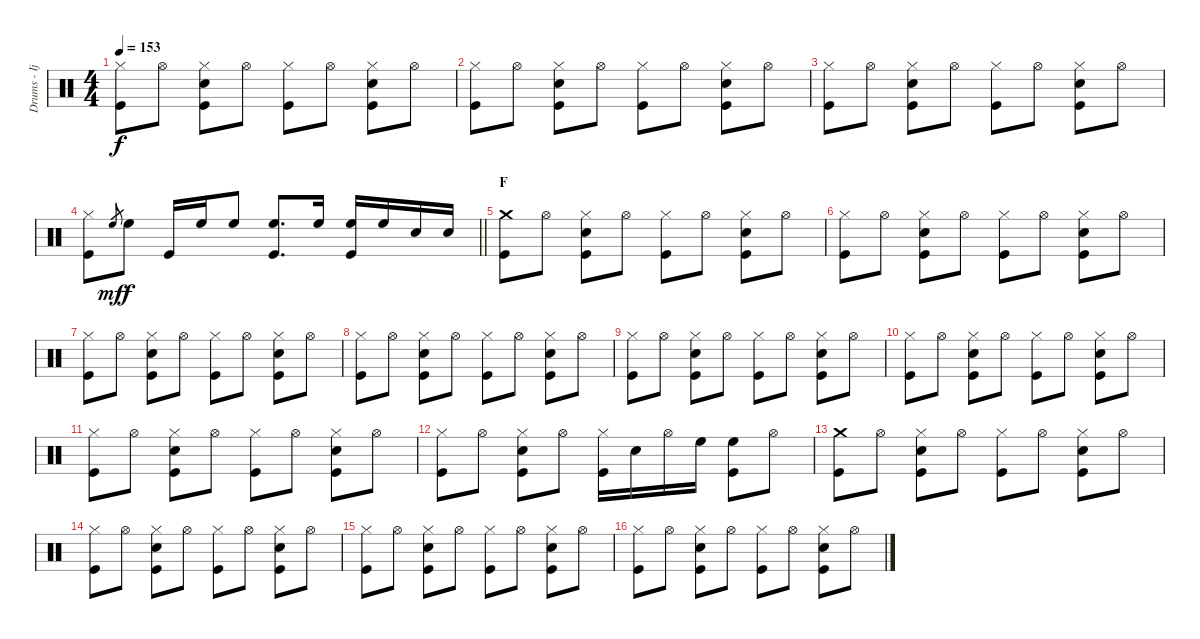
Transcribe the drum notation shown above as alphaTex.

\track ("Drums - Ijichi" "Drums - Ij") {instrument percussion}
\staff {score}
\articulation defaults
\ts (4 4)
\tempo 153
\clef neutral
\ks c
("Hi-Hat (closed)" "Kick (hit)").8{dy f} "Hi-Hat (open)".8 ("Hi-Hat (closed)" "Electric Snare (hit)" "Kick (hit)").8 "Hi-Hat (open)".8 ("Hi-Hat (closed)" "Kick (hit)").8 "Hi-Hat (open)".8 ("Hi-Hat (closed)" "Electric Snare (hit)" "Kick (hit)").8 "Hi-Hat (open)".8 |
("Hi-Hat (closed)" "Kick (hit)").8 "Hi-Hat (open)".8 ("Hi-Hat (closed)" "Electric Snare (hit)" "Kick (hit)").8 "Hi-Hat (open)".8 ("Hi-Hat (closed)" "Kick (hit)").8 "Hi-Hat (open)".8 ("Hi-Hat (closed)" "Electric Snare (hit)" "Kick (hit)").8 "Hi-Hat (open)".8 |
("Hi-Hat (closed)" "Kick (hit)").8 "Hi-Hat (open)".8 ("Hi-Hat (closed)" "Electric Snare (hit)" "Kick (hit)").8 "Hi-Hat (open)".8 ("Hi-Hat (closed)" "Kick (hit)").8 "Hi-Hat (open)".8 ("Hi-Hat (closed)" "Electric Snare (hit)" "Kick (hit)").8 "Hi-Hat (open)".8 |
\barLineRight lightlight
("Hi-Hat (closed)" "Kick (hit)").8 "High Floor Tom (hit)".8{gr dy mf} "High Floor Tom (hit)".8{dy f} "Kick (hit)".16 "High Floor Tom (hit)".16 "High Floor Tom (hit)".8 ("High Floor Tom (hit)" "Kick (hit)").8{d} "High Floor Tom (hit)".16 ("High Floor Tom (hit)" "Kick (hit)").16 "High Floor Tom (hit)".16 "Electric Snare (hit)".16 "Electric Snare (hit)".16 |
\section ("" "F")
("Crash medium (hit)" "Kick (hit)").8 "Hi-Hat (open)".8 ("Hi-Hat (closed)" "Electric Snare (hit)" "Kick (hit)").8 "Hi-Hat (open)".8 ("Hi-Hat (closed)" "Kick (hit)").8 "Hi-Hat (open)".8 ("Hi-Hat (closed)" "Electric Snare (hit)" "Kick (hit)").8 "Hi-Hat (open)".8 |
("Hi-Hat (closed)" "Kick (hit)").8 "Hi-Hat (open)".8 ("Hi-Hat (closed)" "Electric Snare (hit)" "Kick (hit)").8 "Hi-Hat (open)".8 ("Hi-Hat (closed)" "Kick (hit)").8 "Hi-Hat (open)".8 ("Hi-Hat (closed)" "Electric Snare (hit)" "Kick (hit)").8 "Hi-Hat (open)".8 |
("Hi-Hat (closed)" "Kick (hit)").8 "Hi-Hat (open)".8 ("Hi-Hat (closed)" "Electric Snare (hit)" "Kick (hit)").8 "Hi-Hat (open)".8 ("Hi-Hat (closed)" "Kick (hit)").8 "Hi-Hat (open)".8 ("Hi-Hat (closed)" "Electric Snare (hit)" "Kick (hit)").8 "Hi-Hat (open)".8 |
("Hi-Hat (closed)" "Kick (hit)").8 "Hi-Hat (open)".8 ("Hi-Hat (closed)" "Electric Snare (hit)" "Kick (hit)").8 "Hi-Hat (open)".8 ("Hi-Hat (closed)" "Kick (hit)").8 "Hi-Hat (open)".8 ("Hi-Hat (closed)" "Electric Snare (hit)" "Kick (hit)").8 "Hi-Hat (open)".8 |
("Hi-Hat (closed)" "Kick (hit)").8 "Hi-Hat (open)".8 ("Hi-Hat (closed)" "Electric Snare (hit)" "Kick (hit)").8 "Hi-Hat (open)".8 ("Hi-Hat (closed)" "Kick (hit)").8 "Hi-Hat (open)".8 ("Hi-Hat (closed)" "Electric Snare (hit)" "Kick (hit)").8 "Hi-Hat (open)".8 |
("Hi-Hat (closed)" "Kick (hit)").8 "Hi-Hat (open)".8 ("Hi-Hat (closed)" "Electric Snare (hit)" "Kick (hit)").8 "Hi-Hat (open)".8 ("Hi-Hat (closed)" "Kick (hit)").8 "Hi-Hat (open)".8 ("Hi-Hat (closed)" "Electric Snare (hit)" "Kick (hit)").8 "Hi-Hat (open)".8 |
("Hi-Hat (closed)" "Kick (hit)").8 "Hi-Hat (open)".8 ("Hi-Hat (closed)" "Electric Snare (hit)" "Kick (hit)").8 "Hi-Hat (open)".8 ("Hi-Hat (closed)" "Kick (hit)").8 "Hi-Hat (open)".8 ("Hi-Hat (closed)" "Electric Snare (hit)" "Kick (hit)").8 "Hi-Hat (open)".8 |
("Hi-Hat (closed)" "Kick (hit)").8 "Hi-Hat (open)".8 ("Hi-Hat (closed)" "Electric Snare (hit)" "Kick (hit)").8 "Hi-Hat (open)".8 ("Hi-Hat (closed)" "Kick (hit)").16 "Electric Snare (hit)".16 "Hi-Hat (open)".16 "High Floor Tom (hit)".16 ("High Floor Tom (hit)" "Kick (hit)").8 "Hi-Hat (open)".8 |
("Crash medium (hit)" "Kick (hit)").8 "Hi-Hat (open)".8 ("Hi-Hat (closed)" "Electric Snare (hit)" "Kick (hit)").8 "Hi-Hat (open)".8 ("Hi-Hat (closed)" "Kick (hit)").8 "Hi-Hat (open)".8 ("Hi-Hat (closed)" "Electric Snare (hit)" "Kick (hit)").8 "Hi-Hat (open)".8 |
("Hi-Hat (closed)" "Kick (hit)").8 "Hi-Hat (open)".8 ("Hi-Hat (closed)" "Electric Snare (hit)" "Kick (hit)").8 "Hi-Hat (open)".8 ("Hi-Hat (closed)" "Kick (hit)").8 "Hi-Hat (open)".8 ("Hi-Hat (closed)" "Electric Snare (hit)" "Kick (hit)").8 "Hi-Hat (open)".8 |
("Hi-Hat (closed)" "Kick (hit)").8 "Hi-Hat (open)".8 ("Hi-Hat (closed)" "Electric Snare (hit)" "Kick (hit)").8 "Hi-Hat (open)".8 ("Hi-Hat (closed)" "Kick (hit)").8 "Hi-Hat (open)".8 ("Hi-Hat (closed)" "Electric Snare (hit)" "Kick (hit)").8 "Hi-Hat (open)".8 |
("Hi-Hat (closed)" "Kick (hit)").8 "Hi-Hat (open)".8 ("Hi-Hat (closed)" "Electric Snare (hit)" "Kick (hit)").8 "Hi-Hat (open)".8 ("Hi-Hat (closed)" "Kick (hit)").8 "Hi-Hat (open)".8 ("Hi-Hat (closed)" "Electric Snare (hit)" "Kick (hit)").8 "Hi-Hat (open)".8
